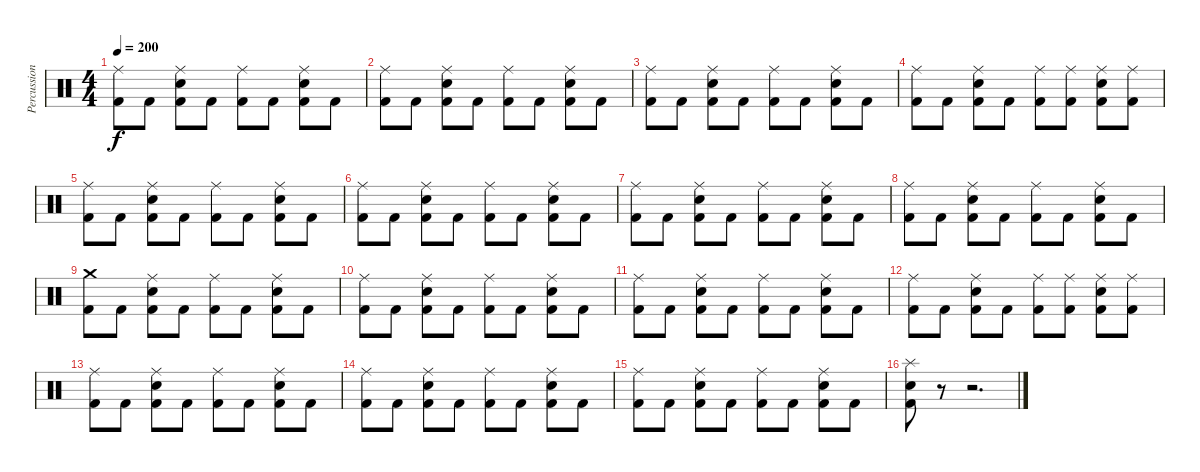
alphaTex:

\track ("Percussion" "Percussion") {instrument percussion}
\staff {score}
\articulation defaults
\ts (4 4)
\tempo 200
\clef neutral
\ks c
("Ride (middle)" "Kick (hit) 2").8{dy f} "Kick (hit) 2".8 ("Ride (middle)" "Snare (hit) 2" "Kick (hit) 2").8 "Kick (hit) 2".8 ("Ride (middle)" "Kick (hit) 2").8 "Kick (hit) 2".8 ("Ride (middle)" "Snare (hit) 2" "Kick (hit) 2").8 "Kick (hit) 2".8 |
("Ride (middle)" "Kick (hit) 2").8 "Kick (hit) 2".8 ("Ride (middle)" "Snare (hit) 2" "Kick (hit) 2").8 "Kick (hit) 2".8 ("Ride (middle)" "Kick (hit) 2").8 "Kick (hit) 2".8 ("Ride (middle)" "Snare (hit) 2" "Kick (hit) 2").8 "Kick (hit) 2".8 |
("Ride (middle)" "Kick (hit) 2").8 "Kick (hit) 2".8 ("Ride (middle)" "Snare (hit) 2" "Kick (hit) 2").8 "Kick (hit) 2".8 ("Ride (middle)" "Kick (hit) 2").8 "Kick (hit) 2".8 ("Ride (middle)" "Snare (hit) 2" "Kick (hit) 2").8 "Kick (hit) 2".8 |
("Ride (middle)" "Kick (hit) 2").8 "Kick (hit) 2".8 ("Ride (middle)" "Snare (hit) 2" "Kick (hit) 2").8 "Kick (hit) 2".8 ("Ride (middle)" "Kick (hit) 2").8 ("Ride (middle)" "Kick (hit) 2").8 ("Ride (middle)" "Snare (hit) 2" "Kick (hit) 2").8 ("Ride (middle)" "Kick (hit) 2").8 |
("Ride (middle)" "Kick (hit) 2").8 "Kick (hit) 2".8 ("Ride (middle)" "Snare (hit) 2" "Kick (hit) 2").8 "Kick (hit) 2".8 ("Ride (middle)" "Kick (hit) 2").8 "Kick (hit) 2".8 ("Ride (middle)" "Snare (hit) 2" "Kick (hit) 2").8 "Kick (hit) 2".8 |
("Ride (middle)" "Kick (hit) 2").8 "Kick (hit) 2".8 ("Ride (middle)" "Snare (hit) 2" "Kick (hit) 2").8 "Kick (hit) 2".8 ("Ride (middle)" "Kick (hit) 2").8 "Kick (hit) 2".8 ("Ride (middle)" "Snare (hit) 2" "Kick (hit) 2").8 "Kick (hit) 2".8 |
("Ride (middle)" "Kick (hit) 2").8 "Kick (hit) 2".8 ("Ride (middle)" "Snare (hit) 2" "Kick (hit) 2").8 "Kick (hit) 2".8 ("Ride (middle)" "Kick (hit) 2").8 "Kick (hit) 2".8 ("Ride (middle)" "Snare (hit) 2" "Kick (hit) 2").8 "Kick (hit) 2".8 |
("Ride (middle)" "Kick (hit) 2").8 "Kick (hit) 2".8 ("Ride (middle)" "Snare (hit) 2" "Kick (hit) 2").8 "Kick (hit) 2".8 ("Ride (middle)" "Kick (hit) 2").8 "Kick (hit) 2".8 ("Ride (middle)" "Snare (hit) 2" "Kick (hit) 2").8 "Kick (hit) 2".8 |
("Crash medium (hit)" "Kick (hit) 2").8 "Kick (hit) 2".8 ("Ride (middle)" "Snare (hit) 2" "Kick (hit) 2").8 "Kick (hit) 2".8 ("Ride (middle)" "Kick (hit) 2").8 "Kick (hit) 2".8 ("Ride (middle)" "Snare (hit) 2" "Kick (hit) 2").8 "Kick (hit) 2".8 |
("Ride (middle)" "Kick (hit) 2").8 "Kick (hit) 2".8 ("Ride (middle)" "Snare (hit) 2" "Kick (hit) 2").8 "Kick (hit) 2".8 ("Ride (middle)" "Kick (hit) 2").8 "Kick (hit) 2".8 ("Ride (middle)" "Snare (hit) 2" "Kick (hit) 2").8 "Kick (hit) 2".8 |
("Ride (middle)" "Kick (hit) 2").8 "Kick (hit) 2".8 ("Ride (middle)" "Snare (hit) 2" "Kick (hit) 2").8 "Kick (hit) 2".8 ("Ride (middle)" "Kick (hit) 2").8 "Kick (hit) 2".8 ("Ride (middle)" "Snare (hit) 2" "Kick (hit) 2").8 "Kick (hit) 2".8 |
("Ride (middle)" "Kick (hit) 2").8 "Kick (hit) 2".8 ("Ride (middle)" "Snare (hit) 2" "Kick (hit) 2").8 "Kick (hit) 2".8 ("Ride (middle)" "Kick (hit) 2").8 ("Ride (middle)" "Kick (hit) 2").8 ("Ride (middle)" "Snare (hit) 2" "Kick (hit) 2").8 ("Ride (middle)" "Kick (hit) 2").8 |
("Ride (middle)" "Kick (hit) 2").8 "Kick (hit) 2".8 ("Ride (middle)" "Snare (hit) 2" "Kick (hit) 2").8 "Kick (hit) 2".8 ("Ride (middle)" "Kick (hit) 2").8 "Kick (hit) 2".8 ("Ride (middle)" "Snare (hit) 2" "Kick (hit) 2").8 "Kick (hit) 2".8 |
("Ride (middle)" "Kick (hit) 2").8 "Kick (hit) 2".8 ("Ride (middle)" "Snare (hit) 2" "Kick (hit) 2").8 "Kick (hit) 2".8 ("Ride (middle)" "Kick (hit) 2").8 "Kick (hit) 2".8 ("Ride (middle)" "Snare (hit) 2" "Kick (hit) 2").8 "Kick (hit) 2".8 |
("Ride (middle)" "Kick (hit) 2").8 "Kick (hit) 2".8 ("Ride (middle)" "Snare (hit) 2" "Kick (hit) 2").8 "Kick (hit) 2".8 ("Ride (middle)" "Kick (hit) 2").8 "Kick (hit) 2".8 ("Ride (middle)" "Snare (hit) 2" "Kick (hit) 2").8 "Kick (hit) 2".8 |
("Snare (hit) 2" "Splash (hit)" "Kick (hit) 2").8 r.8 r.2{d}
